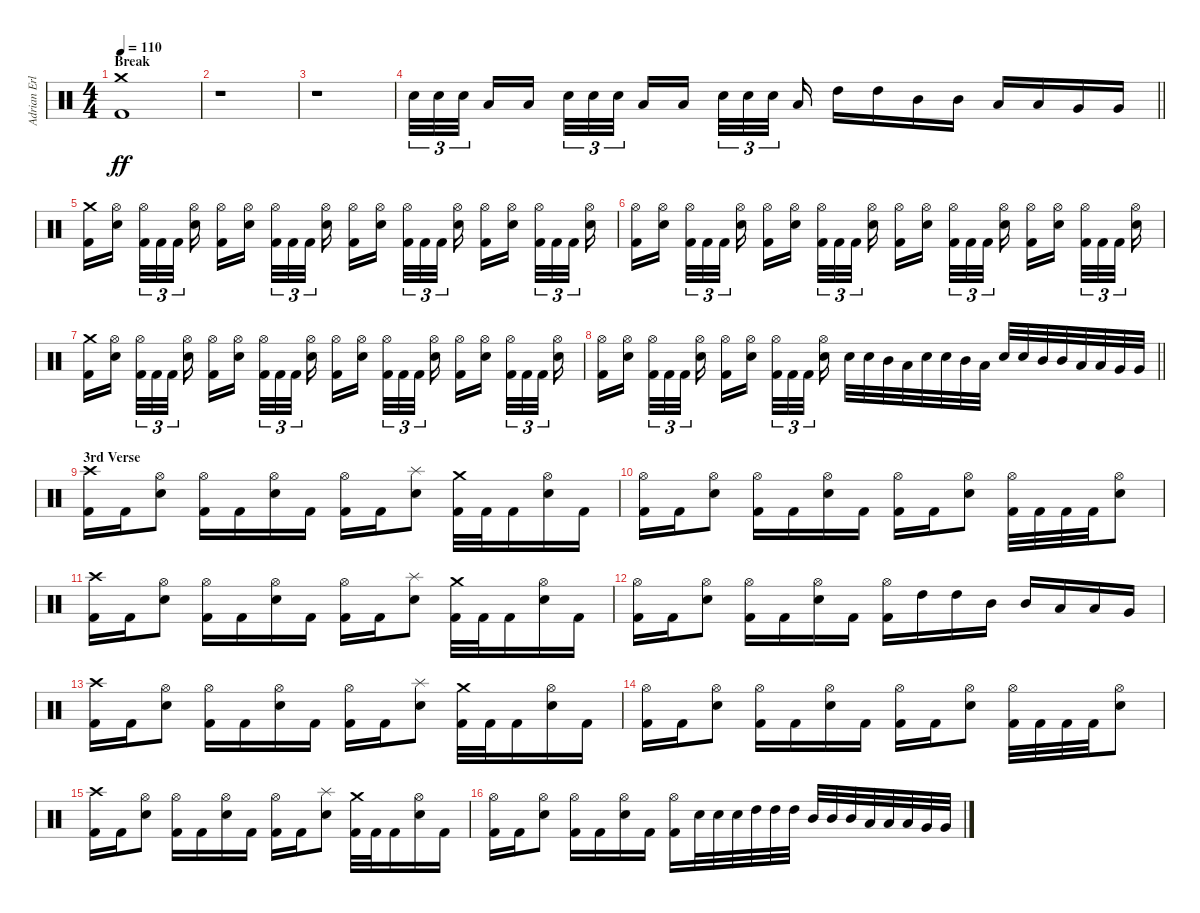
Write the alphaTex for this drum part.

\track ("Adrian Erlandsson" "Adrian Erl") {instrument percussion}
\staff {score}
\articulation defaults
\ts (4 4)
\section ("" "Break")
\tempo 110
\clef neutral
\ks c
("Kick (hit) 2" "Crash medium (hit)").1{dy ff} |
r.1 |
r.1 |
\barLineRight lightlight "Electric Snare (hit)".32{tu (3 2)} "Electric Snare (hit)".32{tu (3 2)} "Electric Snare (hit)".32{tu (3 2) beam splitsecondary} "Low Tom (hit)".16 "Low Tom (hit)".16{beam splitsecondary} "Electric Snare (hit)".32{tu (3 2)} "Electric Snare (hit)".32{tu (3 2)} "Electric Snare (hit)".32{tu (3 2)} "Low Tom (hit)".16 "Low Tom (hit)".16{beam splitsecondary} "Electric Snare (hit)".32{tu (3 2)} "Electric Snare (hit)".32{tu (3 2)} "Electric Snare (hit)".32{tu (3 2) beam splitsecondary} "Low Tom (hit)".16 "High Tom (hit)".16 "High Tom (hit)".16 "Mid Tom (hit)".16 "Mid Tom (hit)".16 "Low Tom (hit)".16 "Low Tom (hit)".16 "Very Low Tom (hit)".16 "Very Low Tom (hit)".16
|
("Kick (hit) 2" "Crash medium (hit)").16 ("Electric Snare (hit)" "Hi-Hat (open)").16{beam splitsecondary} ("Kick (hit) 2" "Hi-Hat (open)").32{tu (3 2)} "Kick (hit) 2".32{tu (3 2)} "Kick (hit) 2".32{tu (3 2) beam splitsecondary} ("Electric Snare (hit)" "Hi-Hat (open)").16 ("Kick (hit) 2" "Hi-Hat (open)").16 ("Electric Snare (hit)" "Hi-Hat (open)").16{beam splitsecondary} ("Kick (hit) 2" "Hi-Hat (open)").32{tu (3 2)} "Kick (hit) 2".32{tu (3 2)} "Kick (hit) 2".32{tu (3 2) beam splitsecondary} ("Electric Snare (hit)" "Hi-Hat (open)").16 ("Kick (hit) 2" "Hi-Hat (open)").16 ("Electric Snare (hit)" "Hi-Hat (open)").16{beam splitsecondary} ("Kick (hit) 2" "Hi-Hat (open)").32{tu (3 2)} "Kick (hit) 2".32{tu (3 2)} "Kick (hit) 2".32{tu (3 2) beam splitsecondary} ("Electric Snare (hit)" "Hi-Hat (open)").16 ("Kick (hit) 2" "Hi-Hat (open)").16 ("Electric Snare (hit)" "Hi-Hat (open)").16{beam splitsecondary} ("Kick (hit) 2" "Hi-Hat (open)").32{tu (3 2)} "Kick (hit) 2".32{tu (3 2)} "Kick (hit) 2".32{tu (3 2) beam splitsecondary} ("Electric Snare (hit)" "Hi-Hat (open)").16 |
("Kick (hit) 2" "Hi-Hat (open)").16 ("Electric Snare (hit)" "Hi-Hat (open)").16{beam splitsecondary} ("Kick (hit) 2" "Hi-Hat (open)").32{tu (3 2)} "Kick (hit) 2".32{tu (3 2)} "Kick (hit) 2".32{tu (3 2) beam splitsecondary} ("Electric Snare (hit)" "Hi-Hat (open)").16 ("Kick (hit) 2" "Hi-Hat (open)").16 ("Electric Snare (hit)" "Hi-Hat (open)").16{beam splitsecondary} ("Kick (hit) 2" "Hi-Hat (open)").32{tu (3 2)} "Kick (hit) 2".32{tu (3 2)} "Kick (hit) 2".32{tu (3 2) beam splitsecondary} ("Electric Snare (hit)" "Hi-Hat (open)").16 ("Kick (hit) 2" "Hi-Hat (open)").16 ("Electric Snare (hit)" "Hi-Hat (open)").16{beam splitsecondary} ("Kick (hit) 2" "Hi-Hat (open)").32{tu (3 2)} "Kick (hit) 2".32{tu (3 2)} "Kick (hit) 2".32{tu (3 2) beam splitsecondary} ("Electric Snare (hit)" "Hi-Hat (open)").16 ("Kick (hit) 2" "Hi-Hat (open)").16 ("Electric Snare (hit)" "Hi-Hat (open)").16{beam splitsecondary} ("Kick (hit) 2" "Hi-Hat (open)").32{tu (3 2)} "Kick (hit) 2".32{tu (3 2)} "Kick (hit) 2".32{tu (3 2) beam splitsecondary} ("Electric Snare (hit)" "Hi-Hat (open)").16 |
("Kick (hit) 2" "Crash medium (hit)").16 ("Electric Snare (hit)" "Hi-Hat (open)").16{beam splitsecondary} ("Kick (hit) 2" "Hi-Hat (open)").32{tu (3 2)} "Kick (hit) 2".32{tu (3 2)} "Kick (hit) 2".32{tu (3 2) beam splitsecondary} ("Electric Snare (hit)" "Hi-Hat (open)").16 ("Kick (hit) 2" "Hi-Hat (open)").16 ("Electric Snare (hit)" "Hi-Hat (open)").16{beam splitsecondary} ("Kick (hit) 2" "Hi-Hat (open)").32{tu (3 2)} "Kick (hit) 2".32{tu (3 2)} "Kick (hit) 2".32{tu (3 2) beam splitsecondary} ("Electric Snare (hit)" "Hi-Hat (open)").16 ("Kick (hit) 2" "Hi-Hat (open)").16 ("Electric Snare (hit)" "Hi-Hat (open)").16{beam splitsecondary} ("Kick (hit) 2" "Hi-Hat (open)").32{tu (3 2)} "Kick (hit) 2".32{tu (3 2)} "Kick (hit) 2".32{tu (3 2) beam splitsecondary} ("Electric Snare (hit)" "Hi-Hat (open)").16 ("Kick (hit) 2" "Hi-Hat (open)").16 ("Electric Snare (hit)" "Hi-Hat (open)").16{beam splitsecondary} ("Kick (hit) 2" "Hi-Hat (open)").32{tu (3 2)} "Kick (hit) 2".32{tu (3 2)} "Kick (hit) 2".32{tu (3 2) beam splitsecondary} ("Electric Snare (hit)" "Hi-Hat (open)").16 |
\barLineRight lightlight
("Kick (hit) 2" "Hi-Hat (open)").16 ("Electric Snare (hit)" "Hi-Hat (open)").16{beam splitsecondary} ("Kick (hit) 2" "Hi-Hat (open)").32{tu (3 2)} "Kick (hit) 2".32{tu (3 2)} "Kick (hit) 2".32{tu (3 2) beam splitsecondary} ("Electric Snare (hit)" "Hi-Hat (open)").16 ("Kick (hit) 2" "Hi-Hat (open)").16 ("Electric Snare (hit)" "Hi-Hat (open)").16{beam splitsecondary} ("Kick (hit) 2" "Hi-Hat (open)").32{tu (3 2)} "Kick (hit) 2".32{tu (3 2)} "Kick (hit) 2".32{tu (3 2) beam splitsecondary} ("Electric Snare (hit)" "Hi-Hat (open)").16 "Electric Snare (hit)".32 "Electric Snare (hit)".32 "Mid Tom (hit)".32 "Low Tom (hit)".32 "Electric Snare (hit)".32 "Electric Snare (hit)".32 "Mid Tom (hit)".32 "Low Tom (hit)".32 "Electric Snare (hit)".32 "Electric Snare (hit)".32 "Mid Tom (hit)".32 "Mid Tom (hit)".32 "Low Tom (hit)".32 "Low Tom (hit)".32 "Very Low Tom (hit)".32 "Very Low Tom (hit)".32 |
\section ("" "3rd Verse")
("Kick (hit) 2" "Crash high (hit)").16 "Kick (hit) 2".16 ("Electric Snare (hit)" "Hi-Hat (open)").8 ("Kick (hit) 2" "Hi-Hat (open)").16 "Kick (hit) 2".16 ("Electric Snare (hit)" "Hi-Hat (open)").16 "Kick (hit) 2".16 ("Kick (hit) 2" "Hi-Hat (open)").16 "Kick (hit) 2".16 ("Electric Snare (hit)" "Splash (hit)").8 ("Kick (hit) 2" "Crash medium (hit)").32 "Kick (hit) 2".32 "Kick (hit) 2".16 ("Electric Snare (hit)" "Hi-Hat (open)").16 "Kick (hit) 2".16 |
("Kick (hit) 2" "Hi-Hat (open)").16 "Kick (hit) 2".16 ("Electric Snare (hit)" "Hi-Hat (open)").8 ("Kick (hit) 2" "Hi-Hat (open)").16 "Kick (hit) 2".16 ("Electric Snare (hit)" "Hi-Hat (open)").16 "Kick (hit) 2".16 ("Kick (hit) 2" "Hi-Hat (open)").16 "Kick (hit) 2".16 ("Electric Snare (hit)" "Hi-Hat (open)").8 ("Kick (hit) 2" "Hi-Hat (open)").32 "Kick (hit) 2".32 "Kick (hit) 2".32 "Kick (hit) 2".32 ("Electric Snare (hit)" "Hi-Hat (open)").8 |
("Kick (hit) 2" "Crash high (hit)").16 "Kick (hit) 2".16 ("Electric Snare (hit)" "Hi-Hat (open)").8 ("Kick (hit) 2" "Hi-Hat (open)").16 "Kick (hit) 2".16 ("Electric Snare (hit)" "Hi-Hat (open)").16 "Kick (hit) 2".16 ("Kick (hit) 2" "Hi-Hat (open)").16 "Kick (hit) 2".16 ("Electric Snare (hit)" "Splash (hit)").8 ("Kick (hit) 2" "Crash medium (hit)").32 "Kick (hit) 2".32 "Kick (hit) 2".16 ("Electric Snare (hit)" "Hi-Hat (open)").16 "Kick (hit) 2".16 |
("Kick (hit) 2" "Hi-Hat (open)").16 "Kick (hit) 2".16 ("Electric Snare (hit)" "Hi-Hat (open)").8 ("Kick (hit) 2" "Hi-Hat (open)").16 "Kick (hit) 2".16 ("Electric Snare (hit)" "Hi-Hat (open)").16 "Kick (hit) 2".16 ("Kick (hit) 2" "Hi-Hat (open)").16 "High Tom (hit)".16 "High Tom (hit)".16 "Mid Tom (hit)".16 "Mid Tom (hit)".16 "Low Tom (hit)".16 "Low Tom (hit)".16 "Very Low Tom (hit)".16 |
("Kick (hit) 2" "Crash high (hit)").16 "Kick (hit) 2".16 ("Electric Snare (hit)" "Hi-Hat (open)").8 ("Kick (hit) 2" "Hi-Hat (open)").16 "Kick (hit) 2".16 ("Electric Snare (hit)" "Hi-Hat (open)").16 "Kick (hit) 2".16 ("Kick (hit) 2" "Hi-Hat (open)").16 "Kick (hit) 2".16 ("Electric Snare (hit)" "Splash (hit)").8 ("Kick (hit) 2" "Crash medium (hit)").32 "Kick (hit) 2".32 "Kick (hit) 2".16 ("Electric Snare (hit)" "Hi-Hat (open)").16 "Kick (hit) 2".16 |
("Kick (hit) 2" "Hi-Hat (open)").16 "Kick (hit) 2".16 ("Electric Snare (hit)" "Hi-Hat (open)").8 ("Kick (hit) 2" "Hi-Hat (open)").16 "Kick (hit) 2".16 ("Electric Snare (hit)" "Hi-Hat (open)").16 "Kick (hit) 2".16 ("Kick (hit) 2" "Hi-Hat (open)").16 "Kick (hit) 2".16 ("Electric Snare (hit)" "Hi-Hat (open)").8 ("Kick (hit) 2" "Hi-Hat (open)").32 "Kick (hit) 2".32 "Kick (hit) 2".32 "Kick (hit) 2".32 ("Electric Snare (hit)" "Hi-Hat (open)").8 |
("Kick (hit) 2" "Crash high (hit)").16 "Kick (hit) 2".16 ("Electric Snare (hit)" "Hi-Hat (open)").8 ("Kick (hit) 2" "Hi-Hat (open)").16 "Kick (hit) 2".16 ("Electric Snare (hit)" "Hi-Hat (open)").16 "Kick (hit) 2".16 ("Kick (hit) 2" "Hi-Hat (open)").16 "Kick (hit) 2".16 ("Electric Snare (hit)" "Splash (hit)").8 ("Kick (hit) 2" "Crash medium (hit)").32 "Kick (hit) 2".32 "Kick (hit) 2".16 ("Electric Snare (hit)" "Hi-Hat (open)").16 "Kick (hit) 2".16 |
("Kick (hit) 2" "Hi-Hat (open)").16 "Kick (hit) 2".16 ("Electric Snare (hit)" "Hi-Hat (open)").8 ("Kick (hit) 2" "Hi-Hat (open)").16 "Kick (hit) 2".16 ("Electric Snare (hit)" "Hi-Hat (open)").16 "Kick (hit) 2".16 ("Kick (hit) 2" "Hi-Hat (open)").16 "Electric Snare (hit)".32 "Electric Snare (hit)".32 "Electric Snare (hit)".32 "High Tom (hit)".32 "High Tom (hit)".32 "High Tom (hit)".32 "Mid Tom (hit)".32 "Mid Tom (hit)".32 "Mid Tom (hit)".32 "Low Tom (hit)".32 "Low Tom (hit)".32 "Low Tom (hit)".32 "Very Low Tom (hit)".32 "Very Low Tom (hit)".32
